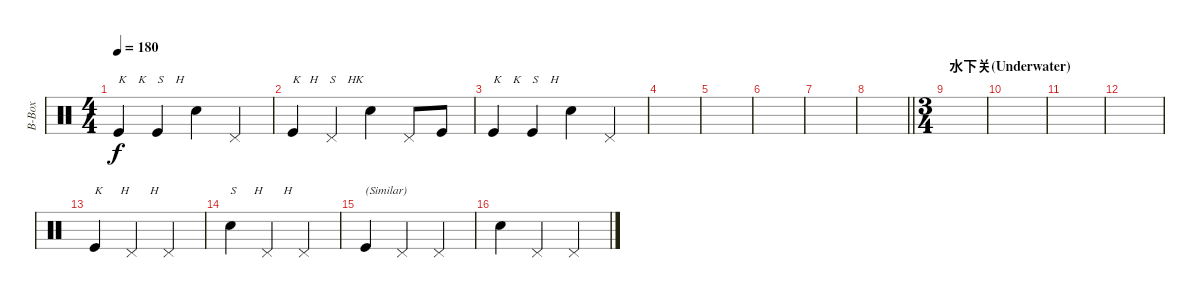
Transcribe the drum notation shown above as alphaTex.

\track ("B-Box" "B-Box") {instrument percussion}
\staff {score}
\articulation defaults
\ts (4 4)
\tempo 180
\clef neutral
\ks c "Kick (hit)".4{txt "K    K    S    H" dy f} "Kick (hit)".4 "Snare (hit) 2".4 "Pedal Hi-Hat (hit)".4
|
"Kick (hit)".4{txt "K   H    S    HK"} "Pedal Hi-Hat (hit)".4 "Snare (hit) 2".4 "Pedal Hi-Hat (hit)".8 "Kick (hit)".8 |
"Kick (hit)".4{txt "K    K    S    H"} "Kick (hit)".4 "Snare (hit) 2".4 "Pedal Hi-Hat (hit)".4 |
|
|
|
|
\barLineRight lightlight
|
\ts (3 4)
\section ("" "水下关(Underwater)")
|
|
|
|
"Kick (hit)".4{txt "K      H       H"} "Pedal Hi-Hat (hit)".4 "Pedal Hi-Hat (hit)".4 |
"Snare (hit) 2".4{txt "S      H       H"} "Pedal Hi-Hat (hit)".4 "Pedal Hi-Hat (hit)".4 |
"Kick (hit)".4{txt "(Similar)"} "Pedal Hi-Hat (hit)".4 "Pedal Hi-Hat (hit)".4 |
"Snare (hit) 2".4 "Pedal Hi-Hat (hit)".4 "Pedal Hi-Hat (hit)".4
